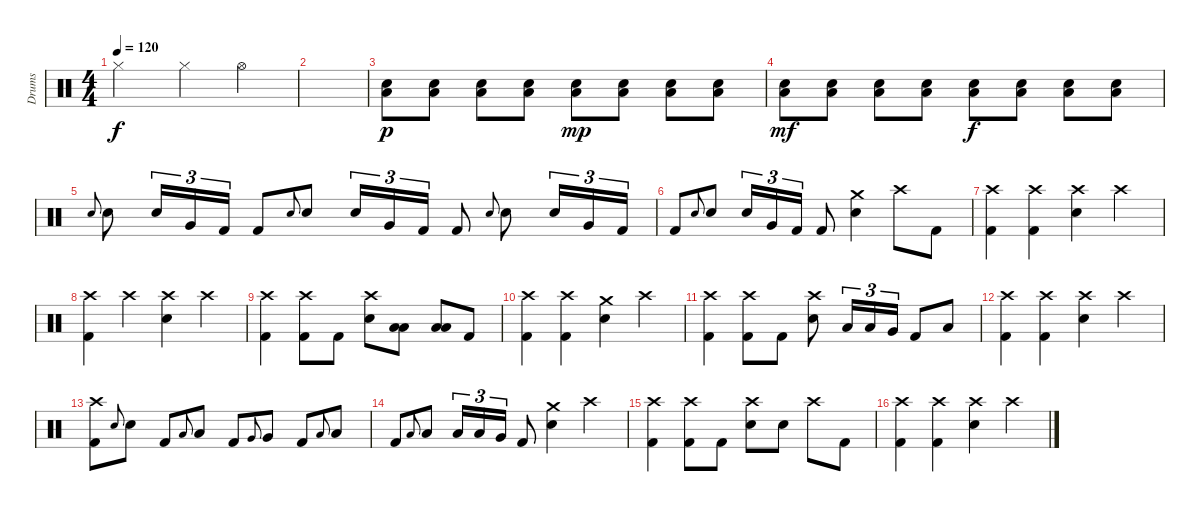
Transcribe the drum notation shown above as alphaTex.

\track ("Drums" "Drums") {instrument percussion}
\staff {score}
\articulation defaults
\ts (4 4)
\tempo 120
\clef neutral
\ks c "Hi-Hat (closed)".2{dy f} "Hi-Hat (closed)".4 "Hi-Hat (open)".4
|
|
("Electric Snare (hit)" "Low Floor Tom (hit)").8{dy p} ("Electric Snare (hit)" "Low Floor Tom (hit)").8 ("Electric Snare (hit)" "Low Floor Tom (hit)").8 ("Electric Snare (hit)" "Low Floor Tom (hit)").8 ("Electric Snare (hit)" "Low Floor Tom (hit)").8{dy mp} ("Electric Snare (hit)" "Low Floor Tom (hit)").8 ("Electric Snare (hit)" "Low Floor Tom (hit)").8 ("Electric Snare (hit)" "Low Floor Tom (hit)").8 |
("Electric Snare (hit)" "Low Floor Tom (hit)").8{dy mf} ("Electric Snare (hit)" "Low Floor Tom (hit)").8 ("Electric Snare (hit)" "Low Floor Tom (hit)").8 ("Electric Snare (hit)" "Low Floor Tom (hit)").8 ("Electric Snare (hit)" "Low Floor Tom (hit)").8{dy f} ("Electric Snare (hit)" "Low Floor Tom (hit)").8 ("Electric Snare (hit)" "Low Floor Tom (hit)").8 ("Electric Snare (hit)" "Low Floor Tom (hit)").8 |
"Electric Snare (hit)".8{gr onbeat} "Electric Snare (hit)".8 "Electric Snare (hit)".16{tu (3 2)} "Very Low Tom (hit)".16{tu (3 2)} "Kick (hit) 2".16{tu (3 2)} "Kick (hit) 2".8 "Electric Snare (hit)".8{gr onbeat} "Electric Snare (hit)".8 "Electric Snare (hit)".16{tu (3 2)} "Very Low Tom (hit)".16{tu (3 2)} "Kick (hit) 2".16{tu (3 2)} "Kick (hit) 2".8 "Electric Snare (hit)".8{gr onbeat} "Electric Snare (hit)".8 "Electric Snare (hit)".16{tu (3 2)} "Very Low Tom (hit)".16{tu (3 2)} "Kick (hit) 2".16{tu (3 2)} |
"Kick (hit) 2".8 "Electric Snare (hit)".8{gr onbeat} "Electric Snare (hit)".8 "Electric Snare (hit)".16{tu (3 2)} "Very Low Tom (hit)".16{tu (3 2)} "Kick (hit) 2".16{tu (3 2)} "Kick (hit) 2".8 ("Crash medium (hit)" "Electric Snare (hit)").4 "Crash high (hit)".8 "Kick (hit) 2".8 |
("Crash high (hit)" "Kick (hit) 2").4 ("Crash high (hit)" "Kick (hit) 2").4 ("Crash high (hit)" "Electric Snare (hit)").4 "Crash high (hit)".4 |
("Crash high (hit)" "Kick (hit) 2").4 "Crash high (hit)".4 ("Crash high (hit)" "Electric Snare (hit)").4 "Crash high (hit)".4 |
("Crash high (hit)" "Kick (hit) 2").4 ("Crash high (hit)" "Kick (hit) 2").8 "Kick (hit) 2".8 ("Crash high (hit)" "Electric Snare (hit)").8 ("Low Tom (hit)" "Low Floor Tom (hit)").8 ("Low Tom (hit)" "Low Floor Tom (hit)").8 "Kick (hit) 2".8 |
("Crash high (hit)" "Kick (hit) 2").4 ("Kick (hit) 2" "Crash high (hit)").4 ("Crash medium (hit)" "Electric Snare (hit)").4 "Crash high (hit)".4 |
("Crash high (hit)" "Kick (hit) 2").4 ("Crash high (hit)" "Kick (hit) 2").8 "Kick (hit) 2".8 ("Electric Snare (hit)" "Crash high (hit)").8 "Low Tom (hit)".16{tu (3 2)} "Low Tom (hit)".16{tu (3 2)} "Very Low Tom (hit)".16{tu (3 2)} "Kick (hit) 2".8 "Low Tom (hit)".8 |
("Crash high (hit)" "Kick (hit) 2").4 ("Crash high (hit)" "Kick (hit) 2").4 ("Crash high (hit)" "Electric Snare (hit)").4 "Crash high (hit)".4 |
("Crash high (hit)" "Kick (hit) 2").8 "Electric Snare (hit)".8{gr onbeat} "Electric Snare (hit)".8 "Kick (hit) 2".8 "Low Tom (hit)".8{gr onbeat} "Low Tom (hit)".8 "Kick (hit) 2".8 "Very Low Tom (hit)".8{gr onbeat} "Very Low Tom (hit)".8 "Kick (hit) 2".8 "Low Floor Tom (hit)".8{gr onbeat} "Low Floor Tom (hit)".8 |
"Kick (hit) 2".8 "Low Floor Tom (hit)".8{gr onbeat} "Low Floor Tom (hit)".8 "Low Tom (hit)".16{tu (3 2)} "Low Tom (hit)".16{tu (3 2)} "Very Low Tom (hit)".16{tu (3 2)} "Kick (hit) 2".8 ("Crash medium (hit)" "Electric Snare (hit)").4 "Crash high (hit)".4 |
("Crash high (hit)" "Kick (hit) 2").4 ("Crash high (hit)" "Kick (hit) 2").8 "Kick (hit) 2".8 ("Crash high (hit)" "Electric Snare (hit)").8 "Electric Snare (hit)".8 "Crash high (hit)".8 "Kick (hit) 2".8 |
("Crash high (hit)" "Kick (hit) 2").4 ("Crash high (hit)" "Kick (hit) 2").4 ("Crash high (hit)" "Electric Snare (hit)").4 "Crash high (hit)".4
